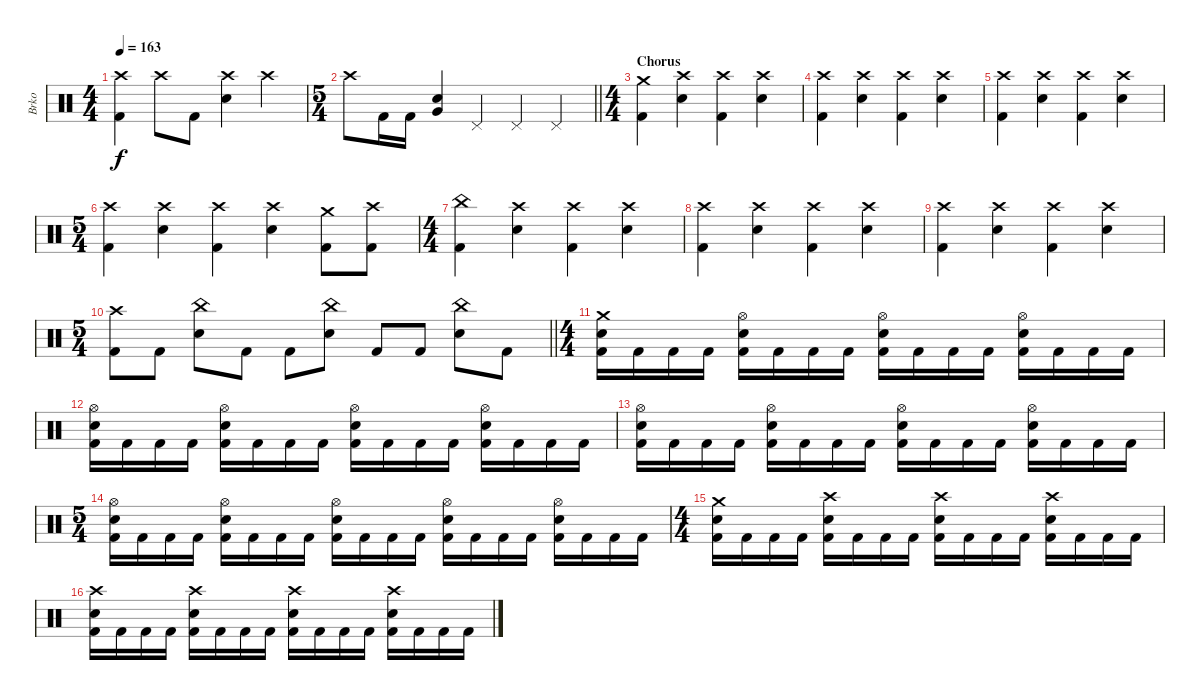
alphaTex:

\track ("Brko" "Brko") {instrument percussion}
\staff {score}
\articulation defaults
\ts (4 4)
\tempo 163
\clef neutral
\ks c
("Crash high (hit)" "Kick (hit) 2").4{dy f} "Crash high (hit)".8 "Kick (hit) 2".8 ("Crash high (hit)" "Electric Snare (hit)").4 "Crash high (hit)".4 |
\ts (5 4)
\barLineRight lightlight "Crash high (hit)".8 "Kick (hit) 2".16 "Kick (hit) 2".16
("Very Low Tom (hit)" "Electric Snare (hit)").4 "Pedal Hi-Hat (hit)".4 "Pedal Hi-Hat (hit)".4 "Pedal Hi-Hat (hit)".4 |
\ts (4 4)
\section ("" "Chorus")
("Crash medium (hit)" "Kick (hit) 2").4 ("Crash high (hit)" "Electric Snare (hit)").4 ("Crash high (hit)" "Kick (hit) 2").4 ("Crash high (hit)" "Electric Snare (hit)").4 |
("Crash high (hit)" "Kick (hit) 2").4 ("Crash high (hit)" "Electric Snare (hit)").4 ("Crash high (hit)" "Kick (hit) 2").4 ("Crash high (hit)" "Electric Snare (hit)").4 |
("Crash high (hit)" "Kick (hit) 2").4 ("Crash high (hit)" "Electric Snare (hit)").4 ("Crash high (hit)" "Kick (hit) 2").4 ("Crash high (hit)" "Electric Snare (hit)").4 |
\ts (5 4)
("Crash high (hit)" "Kick (hit) 2").4 ("Crash high (hit)" "Electric Snare (hit)").4 ("Crash high (hit)" "Kick (hit) 2").4 ("Crash high (hit)" "Electric Snare (hit)").4 ("Crash medium (hit)" "Kick (hit) 2").8 ("Crash high (hit)" "Kick (hit) 2").8 |
\ts (4 4)
("China (hit)" "Kick (hit) 2").4 ("Crash high (hit)" "Electric Snare (hit)").4 ("Crash high (hit)" "Kick (hit) 2").4 ("Crash high (hit)" "Electric Snare (hit)").4 |
("Crash high (hit)" "Kick (hit) 2").4 ("Crash high (hit)" "Electric Snare (hit)").4 ("Crash high (hit)" "Kick (hit) 2").4 ("Crash high (hit)" "Electric Snare (hit)").4 |
("Crash high (hit)" "Kick (hit) 2").4 ("Crash high (hit)" "Electric Snare (hit)").4 ("Crash high (hit)" "Kick (hit) 2").4 ("Crash high (hit)" "Electric Snare (hit)").4 |
\ts (5 4)
\barLineRight lightlight
("Crash high (hit)" "Kick (hit) 2").8 "Kick (hit) 2".8 ("China (hit)" "Electric Snare (hit)").8 "Kick (hit) 2".8 "Kick (hit) 2".8 ("China (hit)" "Electric Snare (hit)").8 "Kick (hit) 2".8 "Kick (hit) 2".8 ("China (hit)" "Electric Snare (hit)").8 "Kick (hit) 2".8 |
\ts (4 4)
("Crash medium (hit)" "Electric Snare (hit)" "Kick (hit) 2").16 "Kick (hit) 2".16 "Kick (hit) 2".16 "Kick (hit) 2".16 ("Hi-Hat (open)" "Electric Snare (hit)" "Kick (hit) 2").16 "Kick (hit) 2".16 "Kick (hit) 2".16 "Kick (hit) 2".16 ("Hi-Hat (open)" "Electric Snare (hit)" "Kick (hit) 2").16 "Kick (hit) 2".16 "Kick (hit) 2".16 "Kick (hit) 2".16 ("Hi-Hat (open)" "Electric Snare (hit)" "Kick (hit) 2").16 "Kick (hit) 2".16 "Kick (hit) 2".16 "Kick (hit) 2".16 |
("Hi-Hat (open)" "Electric Snare (hit)" "Kick (hit) 2").16 "Kick (hit) 2".16 "Kick (hit) 2".16 "Kick (hit) 2".16 ("Hi-Hat (open)" "Electric Snare (hit)" "Kick (hit) 2").16 "Kick (hit) 2".16 "Kick (hit) 2".16 "Kick (hit) 2".16 ("Hi-Hat (open)" "Electric Snare (hit)" "Kick (hit) 2").16 "Kick (hit) 2".16 "Kick (hit) 2".16 "Kick (hit) 2".16 ("Hi-Hat (open)" "Electric Snare (hit)" "Kick (hit) 2").16 "Kick (hit) 2".16 "Kick (hit) 2".16 "Kick (hit) 2".16 |
("Hi-Hat (open)" "Electric Snare (hit)" "Kick (hit) 2").16 "Kick (hit) 2".16 "Kick (hit) 2".16 "Kick (hit) 2".16 ("Hi-Hat (open)" "Electric Snare (hit)" "Kick (hit) 2").16 "Kick (hit) 2".16 "Kick (hit) 2".16 "Kick (hit) 2".16 ("Hi-Hat (open)" "Electric Snare (hit)" "Kick (hit) 2").16 "Kick (hit) 2".16 "Kick (hit) 2".16 "Kick (hit) 2".16 ("Hi-Hat (open)" "Electric Snare (hit)" "Kick (hit) 2").16 "Kick (hit) 2".16 "Kick (hit) 2".16 "Kick (hit) 2".16 |
\ts (5 4)
("Hi-Hat (open)" "Electric Snare (hit)" "Kick (hit) 2").16 "Kick (hit) 2".16 "Kick (hit) 2".16 "Kick (hit) 2".16 ("Hi-Hat (open)" "Electric Snare (hit)" "Kick (hit) 2").16 "Kick (hit) 2".16 "Kick (hit) 2".16 "Kick (hit) 2".16 ("Hi-Hat (open)" "Electric Snare (hit)" "Kick (hit) 2").16 "Kick (hit) 2".16 "Kick (hit) 2".16 "Kick (hit) 2".16 ("Hi-Hat (open)" "Electric Snare (hit)" "Kick (hit) 2").16 "Kick (hit) 2".16 "Kick (hit) 2".16 "Kick (hit) 2".16 ("Hi-Hat (open)" "Electric Snare (hit)" "Kick (hit) 2").16 "Kick (hit) 2".16 "Kick (hit) 2".16 "Kick (hit) 2".16 |
\ts (4 4)
("Crash medium (hit)" "Electric Snare (hit)" "Kick (hit) 2").16 "Kick (hit) 2".16 "Kick (hit) 2".16 "Kick (hit) 2".16 ("Crash high (hit)" "Electric Snare (hit)" "Kick (hit) 2").16 "Kick (hit) 2".16 "Kick (hit) 2".16 "Kick (hit) 2".16 ("Crash high (hit)" "Electric Snare (hit)" "Kick (hit) 2").16 "Kick (hit) 2".16 "Kick (hit) 2".16 "Kick (hit) 2".16 ("Crash high (hit)" "Electric Snare (hit)" "Kick (hit) 2").16 "Kick (hit) 2".16 "Kick (hit) 2".16 "Kick (hit) 2".16 |
("Crash high (hit)" "Electric Snare (hit)" "Kick (hit) 2").16 "Kick (hit) 2".16 "Kick (hit) 2".16 "Kick (hit) 2".16 ("Crash high (hit)" "Electric Snare (hit)" "Kick (hit) 2").16 "Kick (hit) 2".16 "Kick (hit) 2".16 "Kick (hit) 2".16 ("Crash high (hit)" "Electric Snare (hit)" "Kick (hit) 2").16 "Kick (hit) 2".16 "Kick (hit) 2".16 "Kick (hit) 2".16 ("Crash high (hit)" "Electric Snare (hit)" "Kick (hit) 2").16 "Kick (hit) 2".16 "Kick (hit) 2".16 "Kick (hit) 2".16
